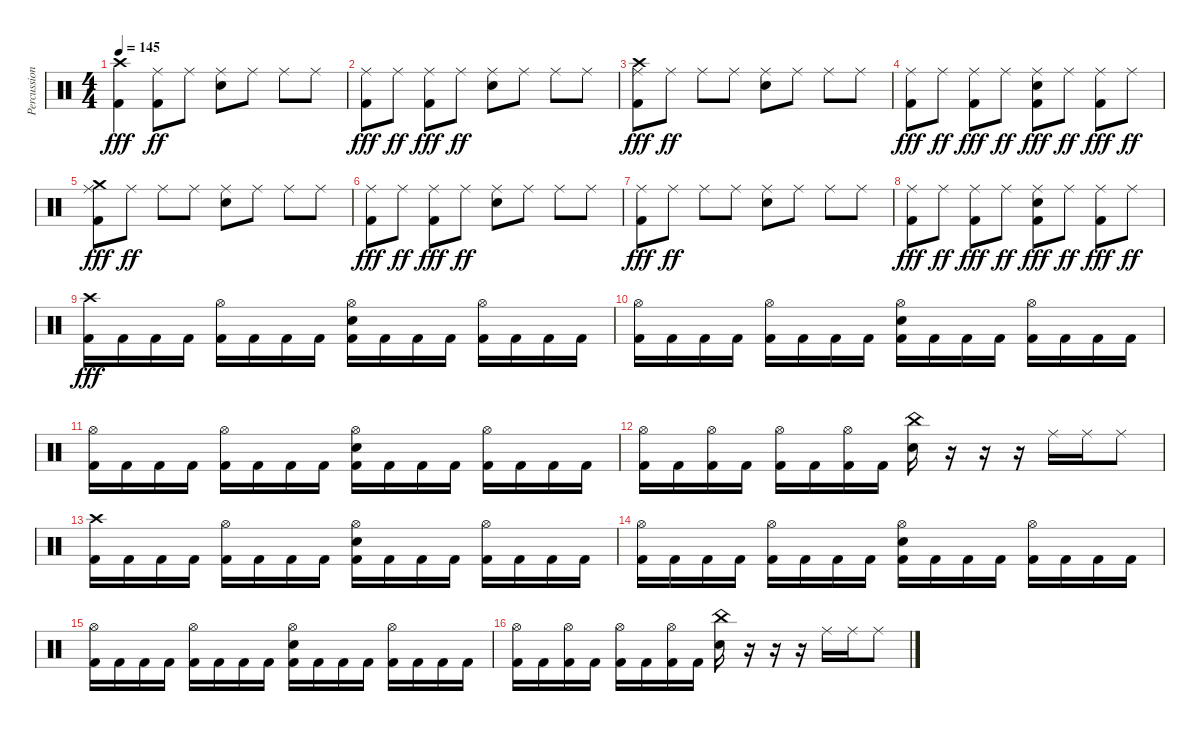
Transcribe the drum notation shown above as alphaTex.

\track ("Percussion" "Percussion") {instrument percussion}
\staff {score}
\articulation defaults
\ts (4 4)
\tempo 145
\clef neutral
\ks c
("Crash high (hit)" "Kick (hit) 2").4{dy fff} ("Ride (middle)" "Kick (hit) 2").8{dy ff} "Ride (middle)".8 ("Ride (middle)" "Snare (hit) 2").8 "Ride (middle)".8 "Ride (middle)".8 "Ride (middle)".8 |
("Ride (middle)" "Kick (hit) 2").8{dy fff} "Ride (middle)".8{dy ff} ("Ride (middle)" "Kick (hit) 2").8{dy fff} "Ride (middle)".8{dy ff} ("Ride (middle)" "Snare (hit) 2").8 "Ride (middle)".8 "Ride (middle)".8 "Ride (middle)".8 |
("Crash high (hit)" "Ride (middle)" "Kick (hit) 2").8{dy fff} "Ride (middle)".8{dy ff} "Ride (middle)".8 "Ride (middle)".8 ("Ride (middle)" "Snare (hit) 2").8 "Ride (middle)".8 "Ride (middle)".8 "Ride (middle)".8 |
("Ride (middle)" "Kick (hit) 2").8{dy fff} "Ride (middle)".8{dy ff} ("Ride (middle)" "Kick (hit) 2").8{dy fff} "Ride (middle)".8{dy ff} ("Ride (middle)" "Snare (hit) 2" "Kick (hit) 2").8{dy fff} "Ride (middle)".8{dy ff} ("Ride (middle)" "Kick (hit) 2").8{dy fff} "Ride (middle)".8{dy ff} |
("Crash medium (hit)" "Ride (middle)" "Kick (hit) 2").8{dy fff} "Ride (middle)".8{dy ff} "Ride (middle)".8 "Ride (middle)".8 ("Ride (middle)" "Snare (hit) 2").8 "Ride (middle)".8 "Ride (middle)".8 "Ride (middle)".8 |
("Ride (middle)" "Kick (hit) 2").8{dy fff} "Ride (middle)".8{dy ff} ("Ride (middle)" "Kick (hit) 2").8{dy fff} "Ride (middle)".8{dy ff} ("Ride (middle)" "Snare (hit) 2").8 "Ride (middle)".8 "Ride (middle)".8 "Ride (middle)".8 |
("Ride (middle)" "Kick (hit) 2").8{dy fff} "Ride (middle)".8{dy ff} "Ride (middle)".8 "Ride (middle)".8 ("Ride (middle)" "Snare (hit) 2").8 "Ride (middle)".8 "Ride (middle)".8 "Ride (middle)".8 |
("Ride (middle)" "Kick (hit) 2").8{dy fff} "Ride (middle)".8{dy ff} ("Ride (middle)" "Kick (hit) 2").8{dy fff} "Ride (middle)".8{dy ff} ("Ride (middle)" "Snare (hit) 2" "Kick (hit) 2").8{dy fff} "Ride (middle)".8{dy ff} ("Ride (middle)" "Kick (hit) 2").8{dy fff} "Ride (middle)".8{dy ff} |
("Crash high (hit)" "Kick (hit) 2").16{dy fff} "Kick (hit) 2".16 "Kick (hit) 2".16 "Kick (hit) 2".16 ("Hi-Hat (open)" "Kick (hit) 2").16 "Kick (hit) 2".16 "Kick (hit) 2".16 "Kick (hit) 2".16 ("Hi-Hat (open)" "Snare (hit) 2" "Kick (hit) 2").16 "Kick (hit) 2".16 "Kick (hit) 2".16 "Kick (hit) 2".16 ("Hi-Hat (open)" "Kick (hit) 2").16 "Kick (hit) 2".16 "Kick (hit) 2".16 "Kick (hit) 2".16 |
("Hi-Hat (open)" "Kick (hit) 2").16 "Kick (hit) 2".16 "Kick (hit) 2".16 "Kick (hit) 2".16 ("Hi-Hat (open)" "Kick (hit) 2").16 "Kick (hit) 2".16 "Kick (hit) 2".16 "Kick (hit) 2".16 ("Hi-Hat (open)" "Snare (hit) 2" "Kick (hit) 2").16 "Kick (hit) 2".16 "Kick (hit) 2".16 "Kick (hit) 2".16 ("Hi-Hat (open)" "Kick (hit) 2").16 "Kick (hit) 2".16 "Kick (hit) 2".16 "Kick (hit) 2".16 |
("Hi-Hat (open)" "Kick (hit) 2").16 "Kick (hit) 2".16 "Kick (hit) 2".16 "Kick (hit) 2".16 ("Hi-Hat (open)" "Kick (hit) 2").16 "Kick (hit) 2".16 "Kick (hit) 2".16 "Kick (hit) 2".16 ("Hi-Hat (open)" "Snare (hit) 2" "Kick (hit) 2").16 "Kick (hit) 2".16 "Kick (hit) 2".16 "Kick (hit) 2".16 ("Hi-Hat (open)" "Kick (hit) 2").16 "Kick (hit) 2".16 "Kick (hit) 2".16 "Kick (hit) 2".16 |
("Hi-Hat (open)" "Kick (hit) 2").16 "Kick (hit) 2".16 ("Hi-Hat (open)" "Kick (hit) 2").16 "Kick (hit) 2".16 ("Hi-Hat (open)" "Kick (hit) 2").16 "Kick (hit) 2".16 ("Hi-Hat (open)" "Kick (hit) 2").16 "Kick (hit) 2".16 ("China (hit)" "Snare (hit) 2").16 r.16 r.16 r.16 "Ride (middle)".16 "Ride (middle)".16 "Ride (middle)".8 |
("Crash high (hit)" "Kick (hit) 2").16 "Kick (hit) 2".16 "Kick (hit) 2".16 "Kick (hit) 2".16 ("Hi-Hat (open)" "Kick (hit) 2").16 "Kick (hit) 2".16 "Kick (hit) 2".16 "Kick (hit) 2".16 ("Hi-Hat (open)" "Snare (hit) 2" "Kick (hit) 2").16 "Kick (hit) 2".16 "Kick (hit) 2".16 "Kick (hit) 2".16 ("Hi-Hat (open)" "Kick (hit) 2").16 "Kick (hit) 2".16 "Kick (hit) 2".16 "Kick (hit) 2".16 |
("Hi-Hat (open)" "Kick (hit) 2").16 "Kick (hit) 2".16 "Kick (hit) 2".16 "Kick (hit) 2".16 ("Hi-Hat (open)" "Kick (hit) 2").16 "Kick (hit) 2".16 "Kick (hit) 2".16 "Kick (hit) 2".16 ("Hi-Hat (open)" "Snare (hit) 2" "Kick (hit) 2").16 "Kick (hit) 2".16 "Kick (hit) 2".16 "Kick (hit) 2".16 ("Hi-Hat (open)" "Kick (hit) 2").16 "Kick (hit) 2".16 "Kick (hit) 2".16 "Kick (hit) 2".16 |
("Hi-Hat (open)" "Kick (hit) 2").16 "Kick (hit) 2".16 "Kick (hit) 2".16 "Kick (hit) 2".16 ("Hi-Hat (open)" "Kick (hit) 2").16 "Kick (hit) 2".16 "Kick (hit) 2".16 "Kick (hit) 2".16 ("Hi-Hat (open)" "Snare (hit) 2" "Kick (hit) 2").16 "Kick (hit) 2".16 "Kick (hit) 2".16 "Kick (hit) 2".16 ("Hi-Hat (open)" "Kick (hit) 2").16 "Kick (hit) 2".16 "Kick (hit) 2".16 "Kick (hit) 2".16 |
("Hi-Hat (open)" "Kick (hit) 2").16 "Kick (hit) 2".16 ("Hi-Hat (open)" "Kick (hit) 2").16 "Kick (hit) 2".16 ("Hi-Hat (open)" "Kick (hit) 2").16 "Kick (hit) 2".16 ("Hi-Hat (open)" "Kick (hit) 2").16 "Kick (hit) 2".16 ("China (hit)" "Snare (hit) 2").16 r.16 r.16 r.16 "Ride (middle)".16 "Ride (middle)".16 "Ride (middle)".8
